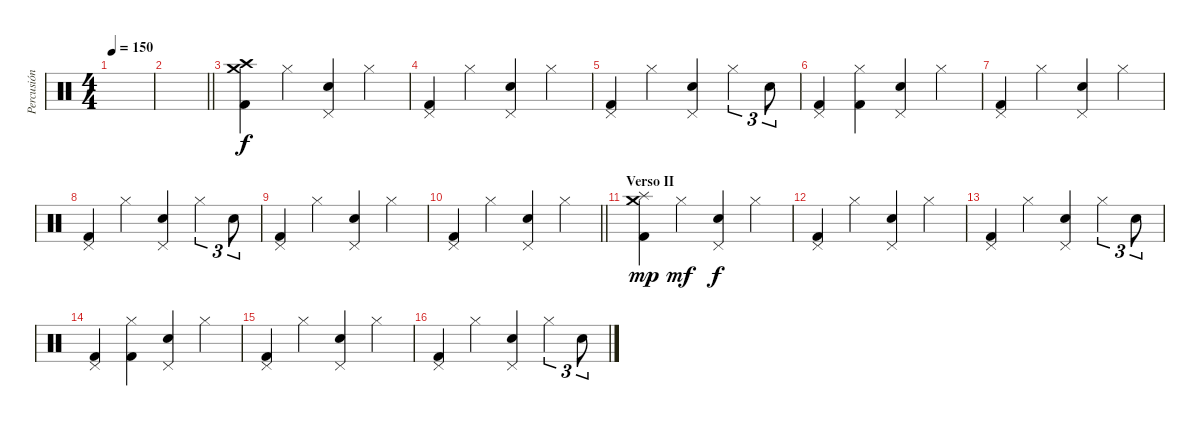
\track ("Percusión" "Percusión") {instrument percussion}
\staff {score}
\articulation defaults
\ts (4 4)
\tempo 150
\clef neutral
\ks c
|
\barLineRight lightlight
|
("Crash medium (hit)" "Crash high (hit)" "Kick (hit) 2").4 "Hi-Hat (closed)".4{dy f} ("Pedal Hi-Hat (hit)" "Electric Snare (hit)").4 "Hi-Hat (closed)".4 |
("Pedal Hi-Hat (hit)" "Kick (hit) 2").4 "Hi-Hat (closed)".4 ("Pedal Hi-Hat (hit)" "Electric Snare (hit)").4 "Hi-Hat (closed)".4 |
("Pedal Hi-Hat (hit)" "Kick (hit) 2").4 "Hi-Hat (closed)".4 ("Pedal Hi-Hat (hit)" "Electric Snare (hit)").4 "Hi-Hat (closed)".4{tu (3 2)} "Electric Snare (hit)".8{tu (3 2)} |
("Pedal Hi-Hat (hit)" "Kick (hit) 2").4 ("Hi-Hat (closed)" "Kick (hit) 2").4 ("Pedal Hi-Hat (hit)" "Electric Snare (hit)").4 "Hi-Hat (closed)".4 |
("Pedal Hi-Hat (hit)" "Kick (hit) 2").4 "Hi-Hat (closed)".4 ("Pedal Hi-Hat (hit)" "Electric Snare (hit)").4 "Hi-Hat (closed)".4 |
("Pedal Hi-Hat (hit)" "Kick (hit) 2").4 "Hi-Hat (closed)".4 ("Pedal Hi-Hat (hit)" "Electric Snare (hit)").4 "Hi-Hat (closed)".4{tu (3 2)} "Electric Snare (hit)".8{tu (3 2)} |
("Pedal Hi-Hat (hit)" "Kick (hit) 2").4 "Hi-Hat (closed)".4 ("Pedal Hi-Hat (hit)" "Electric Snare (hit)").4 "Hi-Hat (closed)".4 |
\barLineRight lightlight
("Pedal Hi-Hat (hit)" "Kick (hit) 2").4 "Hi-Hat (closed)".4 ("Pedal Hi-Hat (hit)" "Electric Snare (hit)").4 "Hi-Hat (closed)".4 |
\section ("" "Verso II")
("Crash medium (hit)" "Splash (hit)" "Kick (hit) 2").4{dy mp} "Hi-Hat (closed)".4{dy mf} ("Pedal Hi-Hat (hit)" "Electric Snare (hit)").4{dy f} "Hi-Hat (closed)".4 |
("Pedal Hi-Hat (hit)" "Kick (hit) 2").4 "Hi-Hat (closed)".4 ("Pedal Hi-Hat (hit)" "Electric Snare (hit)").4 "Hi-Hat (closed)".4 |
("Pedal Hi-Hat (hit)" "Kick (hit) 2").4 "Hi-Hat (closed)".4 ("Pedal Hi-Hat (hit)" "Electric Snare (hit)").4 "Hi-Hat (closed)".4{tu (3 2)} "Electric Snare (hit)".8{tu (3 2)} |
("Pedal Hi-Hat (hit)" "Kick (hit) 2").4 ("Hi-Hat (closed)" "Kick (hit) 2").4 ("Pedal Hi-Hat (hit)" "Electric Snare (hit)").4 "Hi-Hat (closed)".4 |
("Pedal Hi-Hat (hit)" "Kick (hit) 2").4 "Hi-Hat (closed)".4 ("Pedal Hi-Hat (hit)" "Electric Snare (hit)").4 "Hi-Hat (closed)".4 |
("Pedal Hi-Hat (hit)" "Kick (hit) 2").4 "Hi-Hat (closed)".4 ("Pedal Hi-Hat (hit)" "Electric Snare (hit)").4 "Hi-Hat (closed)".4{tu (3 2)} "Electric Snare (hit)".8{tu (3 2)}
